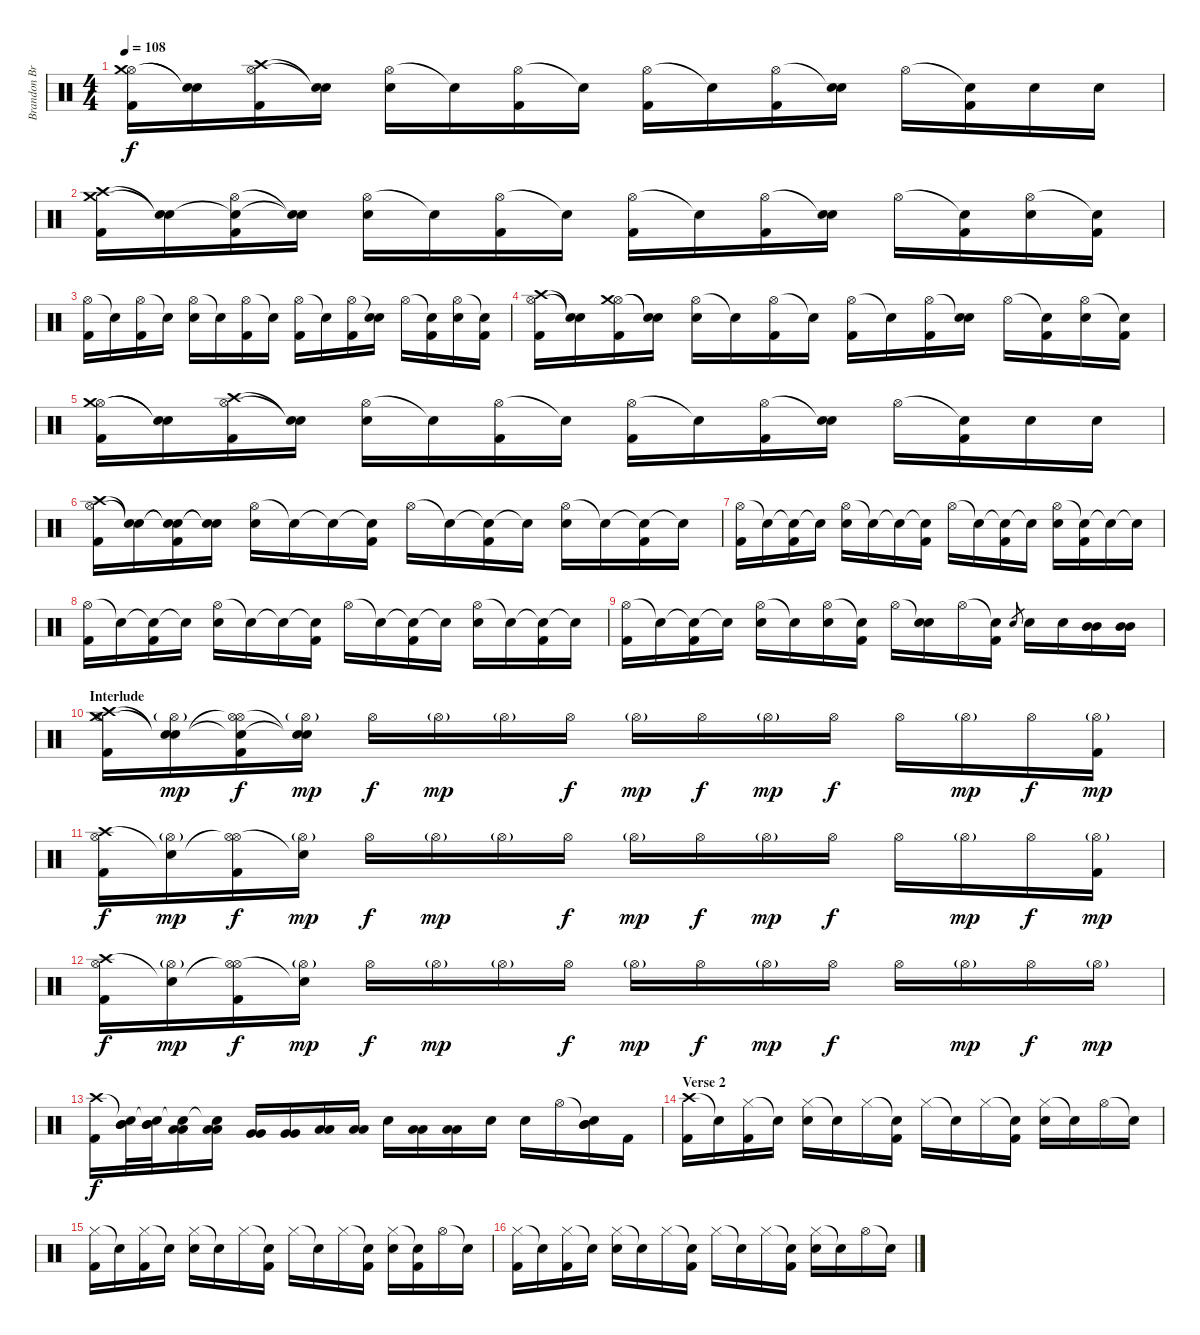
\track ("Brandon Brown (Drums)" "Brandon Br") {instrument percussion}
\staff {score}
\articulation defaults
\ts (4 4)
\tempo 108
\clef neutral
\ks c
("Hi-Hat (open)" "Crash medium (hit)" "Kick (hit) 2").16{dy f} ("Snare (hit)"{t} "Snare (hit)"{t}).16 ("Hi-Hat (open)" "Crash high (hit)" "Kick (hit) 2").16 ("Snare (hit)"{t} "Snare (hit)"{t}).16 ("Hi-Hat (open)" "Electric Snare (hit)").16 "Snare (hit)"{t}.16 ("Hi-Hat (open)" "Kick (hit) 2").16 "Snare (hit)"{t}.16 ("Hi-Hat (open)" "Kick (hit) 2").16 "Snare (hit)"{t}.16 ("Hi-Hat (open)" "Kick (hit) 2").16 ("Snare (hit)"{t} "Electric Snare (hit)").16 "Hi-Hat (open)".16 ("Snare (hit)"{t} "Kick (hit) 2").16 "Electric Snare (hit)".16 "Electric Snare (hit)".16 |
("Crash medium (hit)" "Crash high (hit)" "Kick (hit) 2").16 ("Snare (hit)"{t} "Snare (hit)"{t}).16 ("Hi-Hat (open)" "Snare (hit)"{t} "Kick (hit) 2").16 ("Snare (hit)"{t} "Snare (hit)"{t}).16 ("Hi-Hat (open)" "Electric Snare (hit)").16 "Snare (hit)"{t}.16 ("Hi-Hat (open)" "Kick (hit) 2").16 "Snare (hit)"{t}.16 ("Hi-Hat (open)" "Kick (hit) 2").16 "Snare (hit)"{t}.16 ("Hi-Hat (open)" "Kick (hit) 2").16 ("Snare (hit)"{t} "Electric Snare (hit)").16 "Hi-Hat (open)".16 ("Snare (hit)"{t} "Kick (hit) 2").16 ("Hi-Hat (open)" "Electric Snare (hit)").16 ("Snare (hit)"{t} "Kick (hit) 2").16 |
("Hi-Hat (open)" "Kick (hit) 2").16 "Snare (hit)"{t}.16 ("Hi-Hat (open)" "Kick (hit) 2").16 "Snare (hit)"{t}.16 ("Hi-Hat (open)" "Electric Snare (hit)").16 "Snare (hit)"{t}.16 ("Hi-Hat (open)" "Kick (hit) 2").16 "Snare (hit)"{t}.16 ("Hi-Hat (open)" "Kick (hit) 2").16 "Snare (hit)"{t}.16 ("Hi-Hat (open)" "Kick (hit) 2").16 ("Snare (hit)"{t} "Electric Snare (hit)").16 "Hi-Hat (open)".16 ("Snare (hit)"{t} "Kick (hit) 2").16 ("Hi-Hat (open)" "Electric Snare (hit)").16 ("Snare (hit)"{t} "Kick (hit) 2").16 |
("Hi-Hat (open)" "Crash high (hit)" "Kick (hit) 2").16 ("Snare (hit)"{t} "Snare (hit)"{t}).16 ("Hi-Hat (open)" "Crash medium (hit)" "Kick (hit) 2").16 ("Snare (hit)"{t} "Snare (hit)"{t}).16 ("Hi-Hat (open)" "Electric Snare (hit)").16 "Snare (hit)"{t}.16 ("Hi-Hat (open)" "Kick (hit) 2").16 "Snare (hit)"{t}.16 ("Hi-Hat (open)" "Kick (hit) 2").16 "Snare (hit)"{t}.16 ("Hi-Hat (open)" "Kick (hit) 2").16 ("Snare (hit)"{t} "Electric Snare (hit)").16 "Hi-Hat (open)".16 ("Snare (hit)"{t} "Kick (hit) 2").16 ("Hi-Hat (open)" "Electric Snare (hit)").16 ("Snare (hit)"{t} "Kick (hit) 2").16 |
("Hi-Hat (open)" "Crash medium (hit)" "Kick (hit) 2").16 ("Snare (hit)"{t} "Snare (hit)"{t}).16 ("Hi-Hat (open)" "Crash high (hit)" "Kick (hit) 2").16 ("Snare (hit)"{t} "Snare (hit)"{t}).16 ("Hi-Hat (open)" "Electric Snare (hit)").16 "Snare (hit)"{t}.16 ("Hi-Hat (open)" "Kick (hit) 2").16 "Snare (hit)"{t}.16 ("Hi-Hat (open)" "Kick (hit) 2").16 "Snare (hit)"{t}.16 ("Hi-Hat (open)" "Kick (hit) 2").16 ("Snare (hit)"{t} "Electric Snare (hit)").16 "Hi-Hat (open)".16 ("Snare (hit)"{t} "Kick (hit) 2").16 "Electric Snare (hit)".16 "Electric Snare (hit)".16 |
("Hi-Hat (open)" "Crash high (hit)" "Kick (hit) 2").16 ("Snare (hit)"{t} "Snare (hit)"{t}).16 ("Snare (hit)"{t} "Snare (hit)"{t} "Kick (hit) 2").16 ("Snare (hit)"{t} "Snare (hit)"{t}).16 ("Hi-Hat (open)" "Electric Snare (hit)").16 "Snare (hit)"{t}.16 "Snare (hit)"{t}.16 ("Snare (hit)"{t} "Kick (hit) 2").16 "Hi-Hat (open)".16 "Snare (hit)"{t}.16 ("Snare (hit)"{t} "Kick (hit) 2").16 "Snare (hit)"{t}.16 ("Hi-Hat (open)" "Electric Snare (hit)").16 "Snare (hit)"{t}.16 ("Snare (hit)"{t} "Kick (hit) 2").16 "Snare (hit)"{t}.16 |
("Hi-Hat (open)" "Kick (hit) 2").16 "Snare (hit)"{t}.16 ("Snare (hit)"{t} "Kick (hit) 2").16 "Snare (hit)"{t}.16 ("Hi-Hat (open)" "Electric Snare (hit)").16 "Snare (hit)"{t}.16 "Snare (hit)"{t}.16 ("Snare (hit)"{t} "Kick (hit) 2").16 "Hi-Hat (open)".16 "Snare (hit)"{t}.16 ("Snare (hit)"{t} "Kick (hit) 2").16 "Snare (hit)"{t}.16 ("Hi-Hat (open)" "Electric Snare (hit)").16 ("Snare (hit)"{t} "Kick (hit) 2").16 "Snare (hit)"{t}.16 "Snare (hit)"{t}.16 |
("Hi-Hat (open)" "Kick (hit) 2").16 "Snare (hit)"{t}.16 ("Snare (hit)"{t} "Kick (hit) 2").16 "Snare (hit)"{t}.16 ("Hi-Hat (open)" "Electric Snare (hit)").16 "Snare (hit)"{t}.16 "Snare (hit)"{t}.16 ("Snare (hit)"{t} "Kick (hit) 2").16 "Hi-Hat (open)".16 "Snare (hit)"{t}.16 ("Snare (hit)"{t} "Kick (hit) 2").16 "Snare (hit)"{t}.16 ("Hi-Hat (open)" "Electric Snare (hit)").16 "Snare (hit)"{t}.16 ("Snare (hit)"{t} "Kick (hit) 2").16 "Snare (hit)"{t}.16 |
("Hi-Hat (open)" "Kick (hit) 2").16 "Snare (hit)"{t}.16 ("Snare (hit)"{t} "Kick (hit) 2").16 "Snare (hit)"{t}.16 ("Hi-Hat (open)" "Electric Snare (hit)").16 "Snare (hit)"{t}.16 ("Hi-Hat (open)" "Electric Snare (hit)").16 ("Snare (hit)"{t} "Kick (hit) 2").16 "Hi-Hat (open)".16 ("Snare (hit)"{t} "Electric Snare (hit)").16 "Hi-Hat (open)".16 ("Snare (hit)"{t} "Kick (hit) 2").16 "Electric Snare (hit)".8{gr} "Electric Snare (hit)".16 "Electric Snare (hit)".16 ("Mid Tom (hit)" "Mid Tom (hit)").16 ("Mid Tom (hit)" "Mid Tom (hit)").16 |
\section ("" "Interlude")
("Hi-Hat (open)" "Crash medium (hit)" "Crash high (hit)" "Kick (hit) 2").16 ("Hi-Hat (open)"{g} "Snare (hit)"{t} "Snare (hit)"{t}).16{dy mp} ("Hi-Hat (open)" "Hi-Hat (open)"{t} "Snare (hit)"{t} "Kick (hit) 2").16{dy f} ("Hi-Hat (open)"{g} "Snare (hit)"{t} "Snare (hit)"{t}).16{dy mp} "Hi-Hat (open)".16{dy f} "Hi-Hat (open)"{g}.16{dy mp} "Hi-Hat (open)"{g}.16 "Hi-Hat (open)".16{dy f} "Hi-Hat (open)"{g}.16{dy mp} "Hi-Hat (open)".16{dy f} "Hi-Hat (open)"{g}.16{dy mp} "Hi-Hat (open)".16{dy f} "Hi-Hat (open)".16 "Hi-Hat (open)"{g}.16{dy mp} "Hi-Hat (open)".16{dy f} ("Hi-Hat (open)"{g} "Kick (hit) 2").16{dy mp} |
("Hi-Hat (open)" "Crash high (hit)" "Kick (hit) 2").16{dy f} ("Hi-Hat (open)"{g} "Snare (hit)"{t}).16{dy mp} ("Hi-Hat (open)" "Hi-Hat (open)"{t} "Kick (hit) 2").16{dy f} ("Hi-Hat (open)"{g} "Snare (hit)"{t}).16{dy mp} "Hi-Hat (open)".16{dy f} "Hi-Hat (open)"{g}.16{dy mp} "Hi-Hat (open)"{g}.16 "Hi-Hat (open)".16{dy f} "Hi-Hat (open)"{g}.16{dy mp} "Hi-Hat (open)".16{dy f} "Hi-Hat (open)"{g}.16{dy mp} "Hi-Hat (open)".16{dy f} "Hi-Hat (open)".16 "Hi-Hat (open)"{g}.16{dy mp} "Hi-Hat (open)".16{dy f} ("Hi-Hat (open)"{g} "Kick (hit) 2").16{dy mp} |
("Hi-Hat (open)" "Crash high (hit)" "Kick (hit) 2").16{dy f} ("Hi-Hat (open)"{g} "Snare (hit)"{t}).16{dy mp} ("Hi-Hat (open)" "Hi-Hat (open)"{t} "Kick (hit) 2").16{dy f} ("Hi-Hat (open)"{g} "Snare (hit)"{t}).16{dy mp} "Hi-Hat (open)".16{dy f} "Hi-Hat (open)"{g}.16{dy mp} "Hi-Hat (open)"{g}.16 "Hi-Hat (open)".16{dy f} "Hi-Hat (open)"{g}.16{dy mp} "Hi-Hat (open)".16{dy f} "Hi-Hat (open)"{g}.16{dy mp} "Hi-Hat (open)".16{dy f} "Hi-Hat (open)".16 "Hi-Hat (open)"{g}.16{dy mp} "Hi-Hat (open)".16{dy f} "Hi-Hat (open)"{g}.16{dy mp} |
("Crash high (hit)" "Kick (hit) 2").16{dy f} ("Snare (hit)"{t} "Mid Tom (hit)" "Mid Tom (hit)").32 ("Snare (hit)"{t} "Mid Tom (hit)" "Mid Tom (hit)").32 ("Snare (hit)"{t} "Low Tom (hit)" "Low Tom (hit)").16 ("Snare (hit)"{t} "Low Tom (hit)" "Low Tom (hit)").16 ("Very Low Tom (hit)" "Very Low Tom (hit)").16 ("Very Low Tom (hit)" "Very Low Tom (hit)").16 ("Low Floor Tom (hit)" "Low Floor Tom (hit)").16 ("Low Floor Tom (hit)" "Low Floor Tom (hit)").16 "Electric Snare (hit)".16 ("Low Tom (hit)" "Low Tom (hit)").16 ("Low Tom (hit)" "Low Tom (hit)").16 "Electric Snare (hit)".16 "Electric Snare (hit)".16 "Hi-Hat (open)".16 ("Snare (hit)"{t} "Mid Tom (hit)" "Mid Tom (hit)").16 "Kick (hit) 2".16 |
\section ("" "Verse 2")
("Crash high (hit)" "Kick (hit) 2").16 "Snare (hit)"{t}.16 ("Hi-Hat (closed)" "Kick (hit) 2").16 "Snare (hit)"{t}.16 ("Hi-Hat (closed)" "Electric Snare (hit)").16 "Snare (hit)"{t}.16 "Hi-Hat (closed)".16 ("Snare (hit)"{t} "Kick (hit) 2").16 "Hi-Hat (closed)".16 "Snare (hit)"{t}.16 "Hi-Hat (closed)".16 ("Snare (hit)"{t} "Kick (hit) 2").16 ("Hi-Hat (closed)" "Electric Snare (hit)").16 "Snare (hit)"{t}.16 "Hi-Hat (open)".16 "Snare (hit)"{t}.16 |
("Hi-Hat (closed)" "Kick (hit) 2").16 "Snare (hit)"{t}.16 ("Hi-Hat (closed)" "Kick (hit) 2").16 "Snare (hit)"{t}.16 ("Hi-Hat (closed)" "Electric Snare (hit)").16 "Snare (hit)"{t}.16 "Hi-Hat (closed)".16 ("Snare (hit)"{t} "Kick (hit) 2").16 "Hi-Hat (closed)".16 "Snare (hit)"{t}.16 "Hi-Hat (closed)".16 ("Snare (hit)"{t} "Kick (hit) 2").16 ("Hi-Hat (closed)" "Electric Snare (hit)").16 ("Snare (hit)"{t} "Kick (hit) 2").16 "Hi-Hat (open)".16 "Snare (hit)"{t}.16 |
("Hi-Hat (closed)" "Kick (hit) 2").16 "Snare (hit)"{t}.16 ("Hi-Hat (closed)" "Kick (hit) 2").16 "Snare (hit)"{t}.16 ("Hi-Hat (closed)" "Electric Snare (hit)").16 "Snare (hit)"{t}.16 "Hi-Hat (closed)".16 ("Snare (hit)"{t} "Kick (hit) 2").16 "Hi-Hat (closed)".16 "Snare (hit)"{t}.16 "Hi-Hat (closed)".16 ("Snare (hit)"{t} "Kick (hit) 2").16 ("Hi-Hat (closed)" "Electric Snare (hit)").16 "Snare (hit)"{t}.16 "Hi-Hat (open)".16 "Snare (hit)"{t}.16
